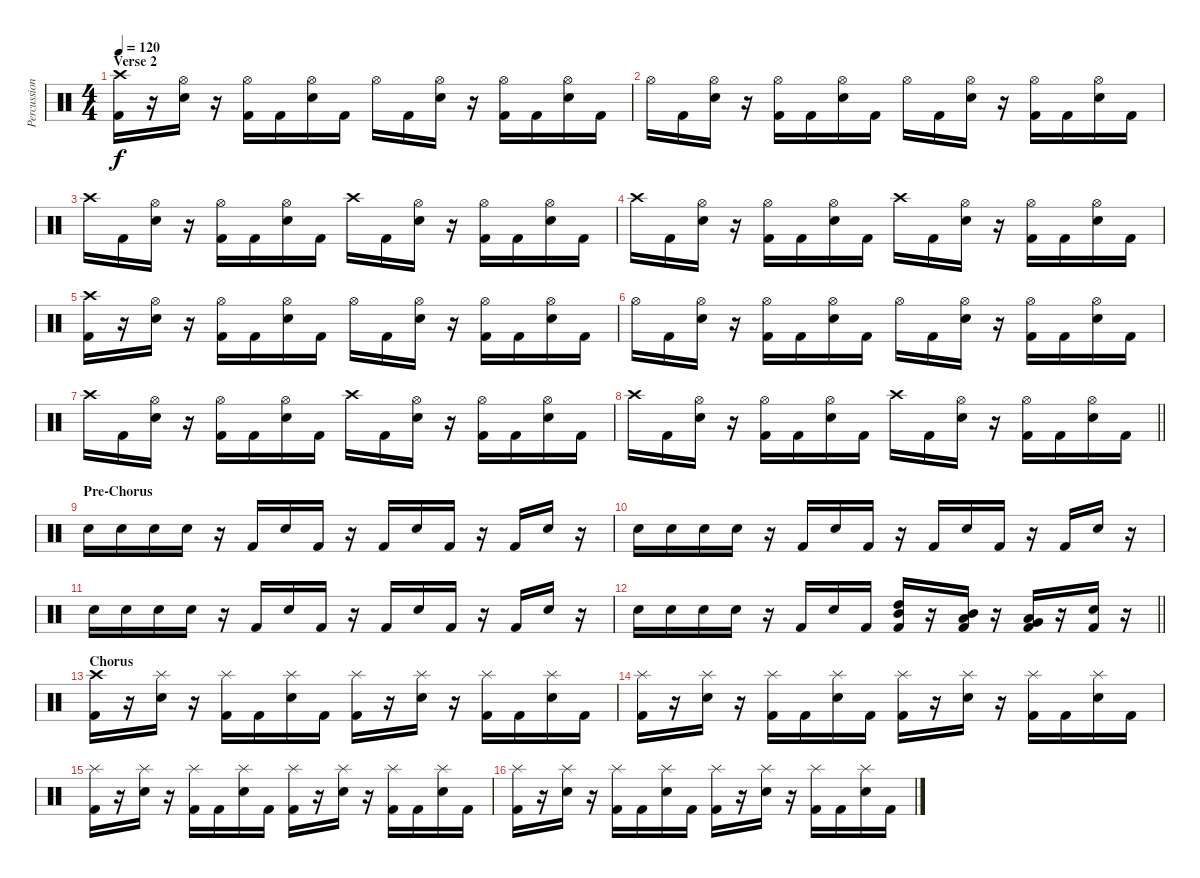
\track ("Percussion" "Percussion") {instrument percussion}
\staff {score}
\articulation defaults
\ts (4 4)
\section ("" "Verse 2")
\tempo 120
\clef neutral
\ks c
("Crash high (hit)" "Kick (hit) 2").16{dy f} r.16 ("Hi-Hat (open)" "Electric Snare (hit)").16 r.16 ("Hi-Hat (open)" "Kick (hit) 2").16 "Kick (hit) 2".16 ("Hi-Hat (open)" "Electric Snare (hit)").16 "Kick (hit) 2".16 "Hi-Hat (open)".16 "Kick (hit) 2".16 ("Hi-Hat (open)" "Electric Snare (hit)").16 r.16 ("Hi-Hat (open)" "Kick (hit) 2").16 "Kick (hit) 2".16 ("Hi-Hat (open)" "Electric Snare (hit)").16 "Kick (hit) 2".16 |
"Hi-Hat (open)".16 "Kick (hit) 2".16 ("Hi-Hat (open)" "Electric Snare (hit)").16 r.16 ("Hi-Hat (open)" "Kick (hit) 2").16 "Kick (hit) 2".16 ("Hi-Hat (open)" "Electric Snare (hit)").16 "Kick (hit) 2".16 "Hi-Hat (open)".16 "Kick (hit) 2".16 ("Hi-Hat (open)" "Electric Snare (hit)").16 r.16 ("Hi-Hat (open)" "Kick (hit) 2").16 "Kick (hit) 2".16 ("Hi-Hat (open)" "Electric Snare (hit)").16 "Kick (hit) 2".16 |
"Crash high (hit)".16 "Kick (hit) 2".16 ("Hi-Hat (open)" "Electric Snare (hit)").16 r.16 ("Hi-Hat (open)" "Kick (hit) 2").16 "Kick (hit) 2".16 ("Hi-Hat (open)" "Electric Snare (hit)").16 "Kick (hit) 2".16 "Crash high (hit)".16 "Kick (hit) 2".16 ("Hi-Hat (open)" "Electric Snare (hit)").16 r.16 ("Hi-Hat (open)" "Kick (hit) 2").16 "Kick (hit) 2".16 ("Hi-Hat (open)" "Electric Snare (hit)").16 "Kick (hit) 2".16 |
"Crash high (hit)".16 "Kick (hit) 2".16 ("Hi-Hat (open)" "Electric Snare (hit)").16 r.16 ("Hi-Hat (open)" "Kick (hit) 2").16 "Kick (hit) 2".16 ("Hi-Hat (open)" "Electric Snare (hit)").16 "Kick (hit) 2".16 "Crash high (hit)".16 "Kick (hit) 2".16 ("Hi-Hat (open)" "Electric Snare (hit)").16 r.16 ("Hi-Hat (open)" "Kick (hit) 2").16 "Kick (hit) 2".16 ("Hi-Hat (open)" "Electric Snare (hit)").16 "Kick (hit) 2".16 |
("Crash high (hit)" "Kick (hit) 2").16 r.16 ("Hi-Hat (open)" "Electric Snare (hit)").16 r.16 ("Hi-Hat (open)" "Kick (hit) 2").16 "Kick (hit) 2".16 ("Hi-Hat (open)" "Electric Snare (hit)").16 "Kick (hit) 2".16 "Hi-Hat (open)".16 "Kick (hit) 2".16 ("Hi-Hat (open)" "Electric Snare (hit)").16 r.16 ("Hi-Hat (open)" "Kick (hit) 2").16 "Kick (hit) 2".16 ("Hi-Hat (open)" "Electric Snare (hit)").16 "Kick (hit) 2".16 |
"Hi-Hat (open)".16 "Kick (hit) 2".16 ("Hi-Hat (open)" "Electric Snare (hit)").16 r.16 ("Hi-Hat (open)" "Kick (hit) 2").16 "Kick (hit) 2".16 ("Hi-Hat (open)" "Electric Snare (hit)").16 "Kick (hit) 2".16 "Hi-Hat (open)".16 "Kick (hit) 2".16 ("Hi-Hat (open)" "Electric Snare (hit)").16 r.16 ("Hi-Hat (open)" "Kick (hit) 2").16 "Kick (hit) 2".16 ("Hi-Hat (open)" "Electric Snare (hit)").16 "Kick (hit) 2".16 |
"Crash high (hit)".16 "Kick (hit) 2".16 ("Hi-Hat (open)" "Electric Snare (hit)").16 r.16 ("Hi-Hat (open)" "Kick (hit) 2").16 "Kick (hit) 2".16 ("Hi-Hat (open)" "Electric Snare (hit)").16 "Kick (hit) 2".16 "Crash high (hit)".16 "Kick (hit) 2".16 ("Hi-Hat (open)" "Electric Snare (hit)").16 r.16 ("Hi-Hat (open)" "Kick (hit) 2").16 "Kick (hit) 2".16 ("Hi-Hat (open)" "Electric Snare (hit)").16 "Kick (hit) 2".16 |
\barLineRight lightlight "Crash high (hit)".16 "Kick (hit) 2".16
("Hi-Hat (open)" "Electric Snare (hit)").16 r.16 ("Hi-Hat (open)" "Kick (hit) 2").16 "Kick (hit) 2".16 ("Hi-Hat (open)" "Electric Snare (hit)").16 "Kick (hit) 2".16 "Crash high (hit)".16 "Kick (hit) 2".16 ("Hi-Hat (open)" "Electric Snare (hit)").16 r.16 ("Hi-Hat (open)" "Kick (hit) 2").16 "Kick (hit) 2".16 ("Hi-Hat (open)" "Electric Snare (hit)").16 "Kick (hit) 2".16 |
\section ("" "Pre-Chorus")
"Electric Snare (hit)".16 "Electric Snare (hit)".16 "Electric Snare (hit)".16 "Electric Snare (hit)".16 r.16 "Kick (hit) 2".16 "Electric Snare (hit)".16 "Kick (hit) 2".16 r.16 "Kick (hit) 2".16 "Electric Snare (hit)".16 "Kick (hit) 2".16 r.16 "Kick (hit) 2".16 "Electric Snare (hit)".16 r.16 |
"Electric Snare (hit)".16 "Electric Snare (hit)".16 "Electric Snare (hit)".16 "Electric Snare (hit)".16 r.16 "Kick (hit) 2".16 "Electric Snare (hit)".16 "Kick (hit) 2".16 r.16 "Kick (hit) 2".16 "Electric Snare (hit)".16 "Kick (hit) 2".16 r.16 "Kick (hit) 2".16 "Electric Snare (hit)".16 r.16 |
"Electric Snare (hit)".16 "Electric Snare (hit)".16 "Electric Snare (hit)".16 "Electric Snare (hit)".16 r.16 "Kick (hit) 2".16 "Electric Snare (hit)".16 "Kick (hit) 2".16 r.16 "Kick (hit) 2".16 "Electric Snare (hit)".16 "Kick (hit) 2".16 r.16 "Kick (hit) 2".16 "Electric Snare (hit)".16 r.16 |
\barLineRight lightlight "Electric Snare (hit)".16 "Electric Snare (hit)".16 "Electric Snare (hit)".16 "Electric Snare (hit)".16
r.16 "Kick (hit) 2".16 "Electric Snare (hit)".16 "Kick (hit) 2".16 ("High Tom (hit)" "Mid Tom (hit)" "Kick (hit) 2").16 r.16 ("Mid Tom (hit)" "Low Tom (hit)" "Kick (hit) 2").16 r.16 ("Low Tom (hit)" "Very Low Tom (hit)" "Kick (hit) 2").16 r.16 ("Electric Snare (hit)" "Kick (hit) 2").16 r.16 |
\section ("" "Chorus")
("Crash high (hit)" "Kick (hit) 2").16 r.16 ("Splash (hit)" "Electric Snare (hit)").16 r.16 ("Splash (hit)" "Kick (hit) 2").16 "Kick (hit) 2".16 ("Splash (hit)" "Electric Snare (hit)").16 "Kick (hit) 2".16 ("Splash (hit)" "Kick (hit) 2").16 r.16 ("Splash (hit)" "Electric Snare (hit)").16 r.16 ("Splash (hit)" "Kick (hit) 2").16 "Kick (hit) 2".16 ("Splash (hit)" "Electric Snare (hit)").16 "Kick (hit) 2".16 |
("Splash (hit)" "Kick (hit) 2").16 r.16 ("Splash (hit)" "Electric Snare (hit)").16 r.16 ("Splash (hit)" "Kick (hit) 2").16 "Kick (hit) 2".16 ("Splash (hit)" "Electric Snare (hit)").16 "Kick (hit) 2".16 ("Splash (hit)" "Kick (hit) 2").16 r.16 ("Splash (hit)" "Electric Snare (hit)").16 r.16 ("Splash (hit)" "Kick (hit) 2").16 "Kick (hit) 2".16 ("Splash (hit)" "Electric Snare (hit)").16 "Kick (hit) 2".16 |
("Splash (hit)" "Kick (hit) 2").16 r.16 ("Splash (hit)" "Electric Snare (hit)").16 r.16 ("Splash (hit)" "Kick (hit) 2").16 "Kick (hit) 2".16 ("Splash (hit)" "Electric Snare (hit)").16 "Kick (hit) 2".16 ("Splash (hit)" "Kick (hit) 2").16 r.16 ("Splash (hit)" "Electric Snare (hit)").16 r.16 ("Splash (hit)" "Kick (hit) 2").16 "Kick (hit) 2".16 ("Splash (hit)" "Electric Snare (hit)").16 "Kick (hit) 2".16 |
("Splash (hit)" "Kick (hit) 2").16 r.16 ("Splash (hit)" "Electric Snare (hit)").16 r.16 ("Splash (hit)" "Kick (hit) 2").16 "Kick (hit) 2".16 ("Splash (hit)" "Electric Snare (hit)").16 "Kick (hit) 2".16 ("Splash (hit)" "Kick (hit) 2").16 r.16 ("Splash (hit)" "Electric Snare (hit)").16 r.16 ("Splash (hit)" "Kick (hit) 2").16 "Kick (hit) 2".16 ("Splash (hit)" "Electric Snare (hit)").16 "Kick (hit) 2".16
